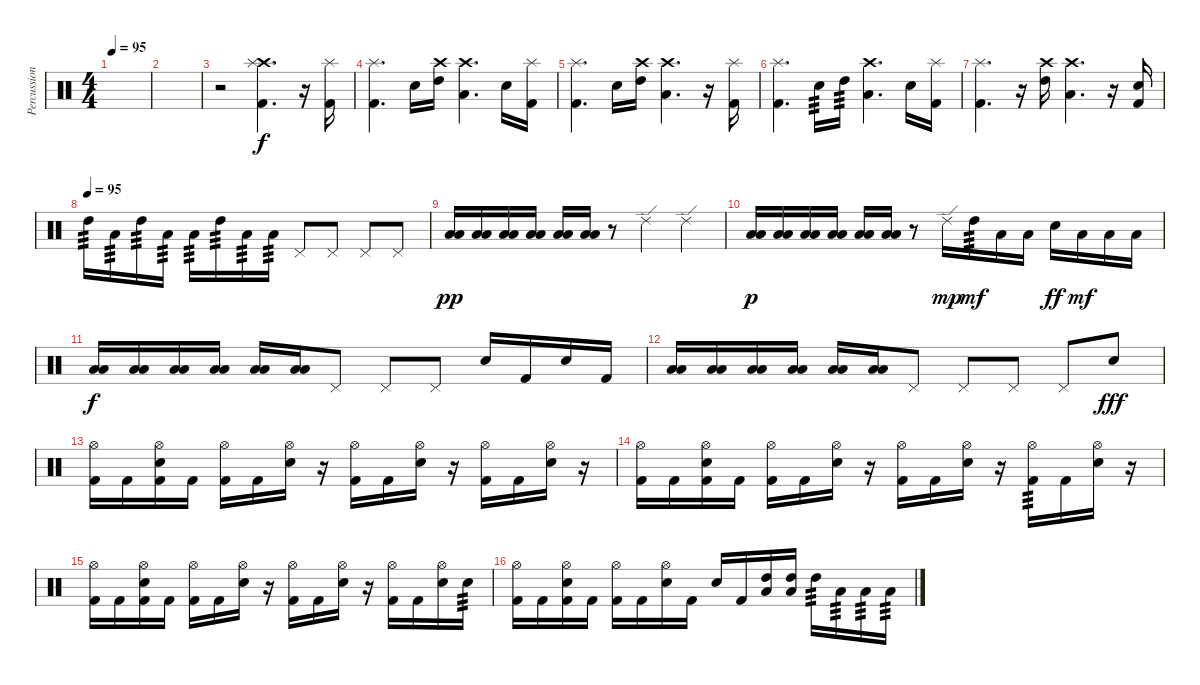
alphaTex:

\track ("Percussion" "Percussion") {instrument percussion}
\staff {score}
\articulation defaults
\ts (4 4)
\tempo 95
\clef neutral
\ks c
|
|
r.2 ("Crash high (hit)" "Splash (hit)" "Kick (hit) 2").4{d dy f} r.16 ("Splash (hit)" "Kick (hit) 2").16 |
("Splash (hit)" "Kick (hit) 2").4{d} "Electric Snare (hit)".16 ("Crash high (hit)" "High Tom (hit)").16 ("Crash high (hit)" "Low Tom (hit)").4{d} "Electric Snare (hit)".16 ("Splash (hit)" "Kick (hit) 2").16 |
("Splash (hit)" "Kick (hit) 2").4{d} "Electric Snare (hit)".16 ("Crash high (hit)" "High Tom (hit)").16 ("Crash high (hit)" "Low Tom (hit)").4{d} r.16 ("Splash (hit)" "Kick (hit) 2").16 |
("Splash (hit)" "Kick (hit) 2").4{d} "Electric Snare (hit)".16{tp 3} "High Tom (hit)".16{tp 3} ("Crash high (hit)" "Low Tom (hit)").4{d} "Electric Snare (hit)".16 ("Splash (hit)" "Kick (hit) 2").16 |
("Splash (hit)" "Kick (hit) 2").4{d} r.16 ("Crash high (hit)" "High Tom (hit)").16 ("Crash high (hit)" "Low Tom (hit)").4{d} r.16 ("Electric Snare (hit)" "Kick (hit) 2").16 |
\tempo (95)
"High Tom (hit)".16{tp 3} "Low Tom (hit)".16{tp 3} "High Tom (hit)".16{tp 3} "Low Tom (hit)".16{tp 3} "Low Floor Tom (hit)".16{tp 3} "High Tom (hit)".16{tp 3} "Low Tom (hit)".16{tp 3} "Low Floor Tom (hit)".16{tp 3} "Pedal Hi-Hat (hit)".8 "Pedal Hi-Hat (hit)".8 "Pedal Hi-Hat (hit)".8 "Pedal Hi-Hat (hit)".8 |
("Low Tom (hit)" "Low Floor Tom (hit)").16{dy pp} ("Low Tom (hit)" "Low Floor Tom (hit)").16 ("Low Tom (hit)" "Low Floor Tom (hit)").16 ("Low Tom (hit)" "Low Floor Tom (hit)").16 ("Low Tom (hit)" "Low Floor Tom (hit)").16 ("Low Tom (hit)" "Low Floor Tom (hit)").16 r.8 "Ride (edge) 2".4 "Ride (edge) 2".4 |
("Low Tom (hit)" "Low Floor Tom (hit)").16{dy p} ("Low Tom (hit)" "Low Floor Tom (hit)").16 ("Low Tom (hit)" "Low Floor Tom (hit)").16 ("Low Tom (hit)" "Low Floor Tom (hit)").16 ("Low Tom (hit)" "Low Floor Tom (hit)").16 ("Low Tom (hit)" "Low Floor Tom (hit)").16 r.8 "Ride (edge) 2".16{dy mp} "High Tom (hit)".16{tp 3 dy mf} "Low Tom (hit)".16 "Low Floor Tom (hit)".16 "Electric Snare (hit)".16{dy ff} "Low Floor Tom (hit)".16{dy mf} "Low Floor Tom (hit)".16 "Low Floor Tom (hit)".16 |
("Low Tom (hit)" "Low Floor Tom (hit)").16{dy f} ("Low Tom (hit)" "Low Floor Tom (hit)").16 ("Low Tom (hit)" "Low Floor Tom (hit)").16 ("Low Tom (hit)" "Low Floor Tom (hit)").16 ("Low Tom (hit)" "Low Floor Tom (hit)").16 ("Low Tom (hit)" "Low Floor Tom (hit)").16 "Pedal Hi-Hat (hit)".8 "Pedal Hi-Hat (hit)".8 "Pedal Hi-Hat (hit)".8 "Electric Snare (hit)".16 "Kick (hit) 2".16 "Electric Snare (hit)".16 "Kick (hit) 2".16 |
("Low Tom (hit)" "Low Floor Tom (hit)").16 ("Low Tom (hit)" "Low Floor Tom (hit)").16 ("Low Tom (hit)" "Low Floor Tom (hit)").16 ("Low Tom (hit)" "Low Floor Tom (hit)").16 ("Low Tom (hit)" "Low Floor Tom (hit)").16 ("Low Tom (hit)" "Low Floor Tom (hit)").16 "Pedal Hi-Hat (hit)".8 "Pedal Hi-Hat (hit)".8 "Pedal Hi-Hat (hit)".8 "Pedal Hi-Hat (hit)".8 "Electric Snare (hit)".8{dy fff} |
("Hi-Hat (open)" "Kick (hit) 2").16 "Kick (hit) 2".16 ("Hi-Hat (open)" "Electric Snare (hit)" "Kick (hit) 2").16 "Kick (hit) 2".16 ("Hi-Hat (open)" "Kick (hit) 2").16 "Kick (hit) 2".16 ("Hi-Hat (open)" "Electric Snare (hit)").16 r.16 ("Hi-Hat (open)" "Kick (hit) 2").16 "Kick (hit) 2".16 ("Hi-Hat (open)" "Electric Snare (hit)").16 r.16 ("Hi-Hat (open)" "Kick (hit) 2").16 "Kick (hit) 2".16 ("Hi-Hat (open)" "Electric Snare (hit)").16 r.16 |
("Hi-Hat (open)" "Kick (hit) 2").16 "Kick (hit) 2".16 ("Hi-Hat (open)" "Electric Snare (hit)" "Kick (hit) 2").16 "Kick (hit) 2".16 ("Hi-Hat (open)" "Kick (hit) 2").16 "Kick (hit) 2".16 ("Hi-Hat (open)" "Electric Snare (hit)").16 r.16 ("Hi-Hat (open)" "Kick (hit) 2").16 "Kick (hit) 2".16 ("Hi-Hat (open)" "Electric Snare (hit)").16 r.16 ("Hi-Hat (open)" "Kick (hit) 2").16{tp 3} "Kick (hit) 2".16 ("Hi-Hat (open)" "Electric Snare (hit)").16 r.16 |
("Hi-Hat (open)" "Kick (hit) 2").16 "Kick (hit) 2".16 ("Hi-Hat (open)" "Electric Snare (hit)" "Kick (hit) 2").16 "Kick (hit) 2".16 ("Hi-Hat (open)" "Kick (hit) 2").16 "Kick (hit) 2".16 ("Hi-Hat (open)" "Electric Snare (hit)").16 r.16 ("Hi-Hat (open)" "Kick (hit) 2").16 "Kick (hit) 2".16 ("Hi-Hat (open)" "Electric Snare (hit)").16 r.16 ("Hi-Hat (open)" "Kick (hit) 2").16 "Kick (hit) 2".16 ("Hi-Hat (open)" "Electric Snare (hit)").16 "Electric Snare (hit)".16{tp 3} |
("Hi-Hat (open)" "Kick (hit) 2").16 "Kick (hit) 2".16 ("Hi-Hat (open)" "Electric Snare (hit)" "Kick (hit) 2").16 "Kick (hit) 2".16 ("Hi-Hat (open)" "Kick (hit) 2").16 "Kick (hit) 2".16 ("Hi-Hat (open)" "Electric Snare (hit)").16 "Kick (hit) 2".16 "Electric Snare (hit)".16 "Kick (hit) 2".16 ("Low Tom (hit)" "High Tom (hit)").16 ("Low Tom (hit)" "High Tom (hit)").16 "High Tom (hit)".16{tp 3} "Low Tom (hit)".16{tp 3} "Low Floor Tom (hit)".16{tp 3} "Low Floor Tom (hit)".16{tp 3}
